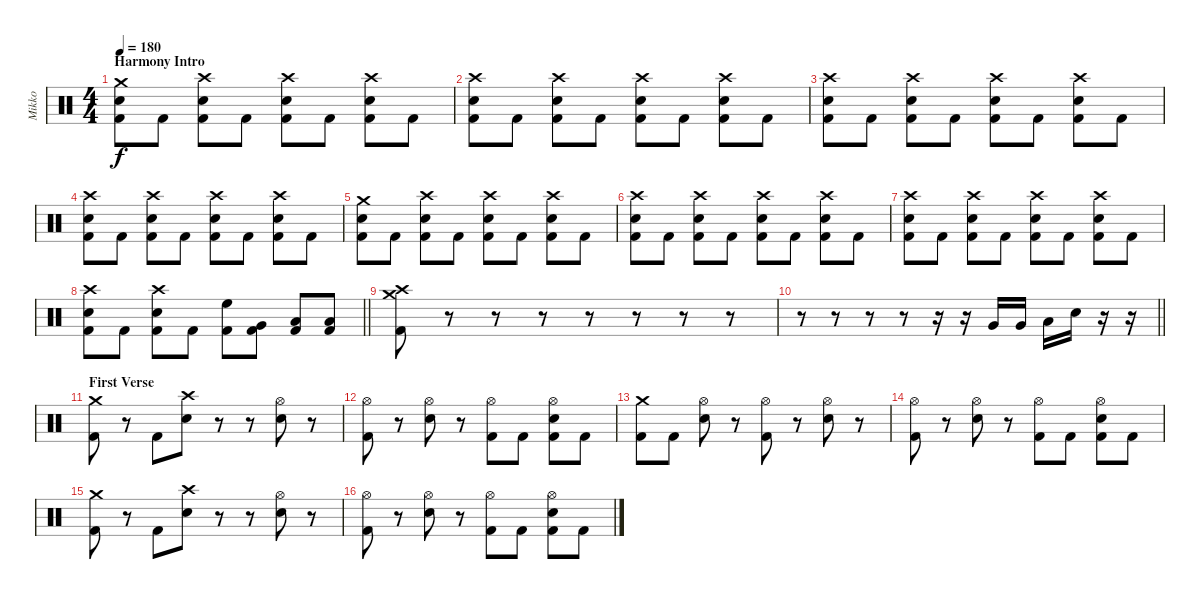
\track ("Mikko" "Mikko") {instrument percussion}
\staff {score}
\articulation defaults
\ts (4 4)
\section ("" "Harmony Intro")
\tempo 180
\clef neutral
\ks c
("Crash medium (hit)" "Electric Snare (hit)" "Kick (hit) 2").8{dy f} "Kick (hit) 2".8 ("Crash high (hit)" "Electric Snare (hit)" "Kick (hit) 2").8 "Kick (hit) 2".8 ("Crash high (hit)" "Electric Snare (hit)" "Kick (hit) 2").8 "Kick (hit) 2".8 ("Crash high (hit)" "Electric Snare (hit)" "Kick (hit) 2").8 "Kick (hit) 2".8 |
("Crash high (hit)" "Electric Snare (hit)" "Kick (hit) 2").8 "Kick (hit) 2".8 ("Crash high (hit)" "Electric Snare (hit)" "Kick (hit) 2").8 "Kick (hit) 2".8 ("Crash high (hit)" "Electric Snare (hit)" "Kick (hit) 2").8 "Kick (hit) 2".8 ("Crash high (hit)" "Electric Snare (hit)" "Kick (hit) 2").8 "Kick (hit) 2".8 |
("Crash high (hit)" "Electric Snare (hit)" "Kick (hit) 2").8 "Kick (hit) 2".8 ("Crash high (hit)" "Electric Snare (hit)" "Kick (hit) 2").8 "Kick (hit) 2".8 ("Crash high (hit)" "Electric Snare (hit)" "Kick (hit) 2").8 "Kick (hit) 2".8 ("Crash high (hit)" "Electric Snare (hit)" "Kick (hit) 2").8 "Kick (hit) 2".8 |
("Crash high (hit)" "Electric Snare (hit)" "Kick (hit) 2").8 "Kick (hit) 2".8 ("Crash high (hit)" "Electric Snare (hit)" "Kick (hit) 2").8 "Kick (hit) 2".8 ("Crash high (hit)" "Electric Snare (hit)" "Kick (hit) 2").8 "Kick (hit) 2".8 ("Crash high (hit)" "Electric Snare (hit)" "Kick (hit) 2").8 "Kick (hit) 2".8 |
("Crash medium (hit)" "Electric Snare (hit)" "Kick (hit) 2").8 "Kick (hit) 2".8 ("Crash high (hit)" "Electric Snare (hit)" "Kick (hit) 2").8 "Kick (hit) 2".8 ("Crash high (hit)" "Electric Snare (hit)" "Kick (hit) 2").8 "Kick (hit) 2".8 ("Crash high (hit)" "Electric Snare (hit)" "Kick (hit) 2").8 "Kick (hit) 2".8 |
("Crash high (hit)" "Electric Snare (hit)" "Kick (hit) 2").8 "Kick (hit) 2".8 ("Crash high (hit)" "Electric Snare (hit)" "Kick (hit) 2").8 "Kick (hit) 2".8 ("Crash high (hit)" "Electric Snare (hit)" "Kick (hit) 2").8 "Kick (hit) 2".8 ("Crash high (hit)" "Electric Snare (hit)" "Kick (hit) 2").8 "Kick (hit) 2".8 |
("Crash high (hit)" "Electric Snare (hit)" "Kick (hit) 2").8 "Kick (hit) 2".8 ("Crash high (hit)" "Electric Snare (hit)" "Kick (hit) 2").8 "Kick (hit) 2".8 ("Crash high (hit)" "Electric Snare (hit)" "Kick (hit) 2").8 "Kick (hit) 2".8 ("Crash high (hit)" "Electric Snare (hit)" "Kick (hit) 2").8 "Kick (hit) 2".8 |
\barLineRight lightlight
("Crash high (hit)" "Electric Snare (hit)" "Kick (hit) 2").8 "Kick (hit) 2".8 ("Crash high (hit)" "Electric Snare (hit)" "Kick (hit) 2").8 "Kick (hit) 2".8 ("High Floor Tom (hit)" "Kick (hit) 2").8 ("Very Low Tom (hit)" "Kick (hit) 2").8 ("Low Floor Tom (hit)" "Kick (hit) 2").8 ("Low Tom (hit)" "Kick (hit) 2").8 |
("Crash medium (hit)" "Crash high (hit)" "Kick (hit) 2").8 r.8 r.8 r.8 r.8 r.8 r.8 r.8 |
\barLineRight lightlight
r.8 r.8 r.8 r.8 r.16 r.16 "Very Low Tom (hit)".16 "Very Low Tom (hit)".16 "Low Tom (hit)".16 "Electric Snare (hit)".16 r.16 r.16 |
\section ("" "First Verse")
("Crash medium (hit)" "Kick (hit) 2").8 r.8 "Kick (hit) 2".8 ("Crash high (hit)" "Electric Snare (hit)").8 r.8 r.8 ("Hi-Hat (open)" "Electric Snare (hit)").8 r.8 |
("Hi-Hat (open)" "Kick (hit) 2").8 r.8 ("Hi-Hat (open)" "Electric Snare (hit)").8 r.8 ("Hi-Hat (open)" "Kick (hit) 2").8 "Kick (hit) 2".8 ("Hi-Hat (open)" "Electric Snare (hit)" "Kick (hit) 2").8 "Kick (hit) 2".8 |
("Crash medium (hit)" "Kick (hit) 2").8 "Kick (hit) 2".8 ("Hi-Hat (open)" "Electric Snare (hit)").8 r.8 ("Hi-Hat (open)" "Kick (hit) 2").8 r.8 ("Hi-Hat (open)" "Electric Snare (hit)").8 r.8 |
("Hi-Hat (open)" "Kick (hit) 2").8 r.8 ("Hi-Hat (open)" "Electric Snare (hit)").8 r.8 ("Hi-Hat (open)" "Kick (hit) 2").8 "Kick (hit) 2".8 ("Hi-Hat (open)" "Electric Snare (hit)" "Kick (hit) 2").8 "Kick (hit) 2".8 |
("Crash medium (hit)" "Kick (hit) 2").8 r.8 "Kick (hit) 2".8 ("Crash high (hit)" "Electric Snare (hit)").8 r.8 r.8 ("Hi-Hat (open)" "Electric Snare (hit)").8 r.8 |
("Hi-Hat (open)" "Kick (hit) 2").8 r.8 ("Hi-Hat (open)" "Electric Snare (hit)").8 r.8 ("Hi-Hat (open)" "Kick (hit) 2").8 "Kick (hit) 2".8 ("Hi-Hat (open)" "Electric Snare (hit)" "Kick (hit) 2").8 "Kick (hit) 2".8
